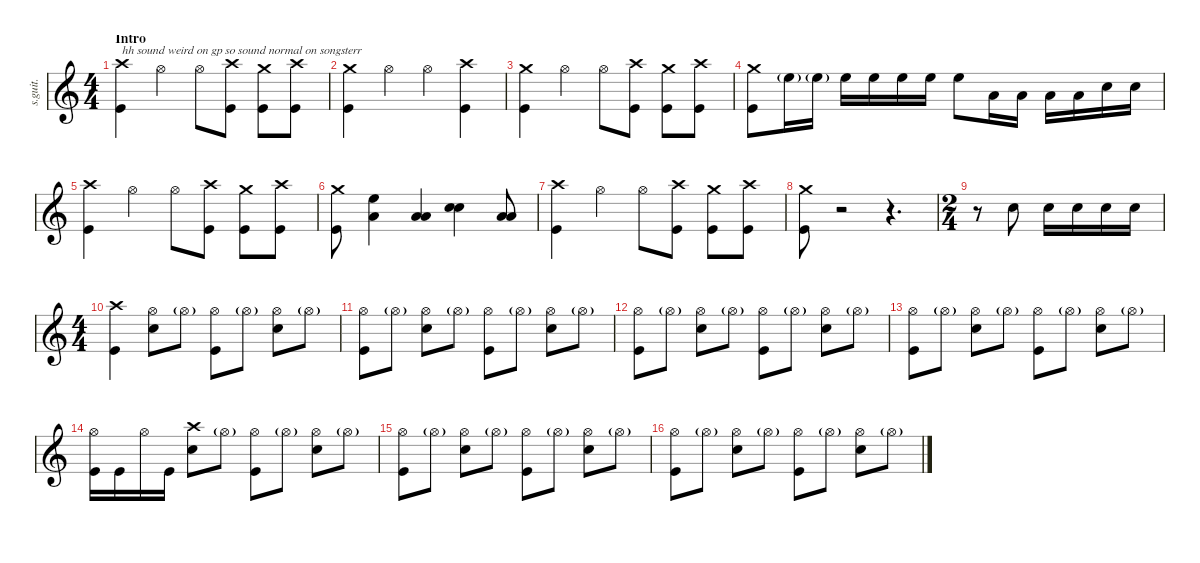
\defaultSystemsLayout 4
\hideDynamics
\bracketExtendMode nobrackets
\track ("Lars Ulrich" "s.guit.") {instrument percussion}
\staff {score}
\articulation defaults
\ts (4 4)
\beaming (8 2 2 2 2)
\section ("" "Intro")
\tempo (94 hide)
\clef g2
\ks c
("Crash high (hit)" "Kick (hit)").4{txt "hh sound weird on gp so sound normal on songsterr" lyrics (0 "") lyrics (1 "") lyrics (2 "") lyrics (3 "") lyrics (4 "") dy f} "Hi-Hat (open)".4{lyrics (0 "") lyrics (1 "") lyrics (2 "") lyrics (3 "") lyrics (4 "")} "Hi-Hat (open)".8{lyrics (0 "") lyrics (1 "") lyrics (2 "") lyrics (3 "") lyrics (4 "")} ("Crash high (hit)" "Kick (hit)").8{lyrics (0 "") lyrics (1 "") lyrics (2 "") lyrics (3 "") lyrics (4 "")} ("Crash medium (hit)" "Kick (hit)").8{lyrics (0 "") lyrics (1 "") lyrics (2 "") lyrics (3 "") lyrics (4 "")} ("Crash high (hit)" "Kick (hit)").8{lyrics (0 "") lyrics (1 "") lyrics (2 "") lyrics (3 "") lyrics (4 "")} |
\tempo (93 hide)
("Crash medium (hit)" "Kick (hit)").4{lyrics (0 "") lyrics (1 "") lyrics (2 "") lyrics (3 "") lyrics (4 "")} "Hi-Hat (open)".4{lyrics (0 "") lyrics (1 "") lyrics (2 "") lyrics (3 "") lyrics (4 "")} "Hi-Hat (open)".4{lyrics (0 "") lyrics (1 "") lyrics (2 "") lyrics (3 "") lyrics (4 "")} ("Crash high (hit)" "Kick (hit)").4{lyrics (0 "") lyrics (1 "") lyrics (2 "") lyrics (3 "") lyrics (4 "")} |
\tempo (92 hide)
("Crash medium (hit)" "Kick (hit)").4{lyrics (0 "") lyrics (1 "") lyrics (2 "") lyrics (3 "") lyrics (4 "")} "Hi-Hat (open)".4{lyrics (0 "") lyrics (1 "") lyrics (2 "") lyrics (3 "") lyrics (4 "")} "Hi-Hat (open)".8{lyrics (0 "") lyrics (1 "") lyrics (2 "") lyrics (3 "") lyrics (4 "")} ("Crash high (hit)" "Kick (hit)").8{lyrics (0 "") lyrics (1 "") lyrics (2 "") lyrics (3 "") lyrics (4 "")} ("Crash medium (hit)" "Kick (hit)").8{lyrics (0 "") lyrics (1 "") lyrics (2 "") lyrics (3 "") lyrics (4 "")} ("Crash high (hit)" "Kick (hit)").8{lyrics (0 "") lyrics (1 "") lyrics (2 "") lyrics (3 "") lyrics (4 "")} |
\tempo (96 hide)
("Crash medium (hit)" "Kick (hit)").8{lyrics (0 "") lyrics (1 "") lyrics (2 "") lyrics (3 "") lyrics (4 "")} "High Floor Tom (hit)"{g}.16{lyrics (0 "") lyrics (1 "") lyrics (2 "") lyrics (3 "") lyrics (4 "") dy ff} "High Floor Tom (hit)"{g}.16{lyrics (0 "") lyrics (1 "") lyrics (2 "") lyrics (3 "") lyrics (4 "")} "High Floor Tom (hit)".16{lyrics (0 "") lyrics (1 "") lyrics (2 "") lyrics (3 "") lyrics (4 "")} "High Floor Tom (hit)".16{lyrics (0 "") lyrics (1 "") lyrics (2 "") lyrics (3 "") lyrics (4 "")} "High Floor Tom (hit)".16{lyrics (0 "") lyrics (1 "") lyrics (2 "") lyrics (3 "") lyrics (4 "")} "High Floor Tom (hit)".16{lyrics (0 "") lyrics (1 "") lyrics (2 "") lyrics (3 "") lyrics (4 "")} "High Floor Tom (hit)".8{lyrics (0 "") lyrics (1 "") lyrics (2 "") lyrics (3 "") lyrics (4 "")} "Low Tom (hit)".16{lyrics (0 "") lyrics (1 "") lyrics (2 "") lyrics (3 "") lyrics (4 "")} "Low Tom (hit)".16{lyrics (0 "") lyrics (1 "") lyrics (2 "") lyrics (3 "") lyrics (4 "")} "Low Tom (hit)".16{lyrics (0 "") lyrics (1 "") lyrics (2 "") lyrics (3 "") lyrics (4 "")} "Low Tom (hit)".16{lyrics (0 "") lyrics (1 "") lyrics (2 "") lyrics (3 "") lyrics (4 "")} "Snare (hit) 2".16{lyrics (0 "") lyrics (1 "") lyrics (2 "") lyrics (3 "") lyrics (4 "") dy f} "Snare (hit) 2".16{lyrics (0 "") lyrics (1 "") lyrics (2 "") lyrics (3 "") lyrics (4 "")} |
\tempo (91 hide)
("Crash high (hit)" "Kick (hit)").4{lyrics (0 "") lyrics (1 "") lyrics (2 "") lyrics (3 "") lyrics (4 "")} "Hi-Hat (open)".4{lyrics (0 "") lyrics (1 "") lyrics (2 "") lyrics (3 "") lyrics (4 "")} "Hi-Hat (open)".8{lyrics (0 "") lyrics (1 "") lyrics (2 "") lyrics (3 "") lyrics (4 "")} ("Crash high (hit)" "Kick (hit)").8{lyrics (0 "") lyrics (1 "") lyrics (2 "") lyrics (3 "") lyrics (4 "")} ("Crash medium (hit)" "Kick (hit)").8{lyrics (0 "") lyrics (1 "") lyrics (2 "") lyrics (3 "") lyrics (4 "")} ("Crash high (hit)" "Kick (hit)").8{lyrics (0 "") lyrics (1 "") lyrics (2 "") lyrics (3 "") lyrics (4 "")} |
\tempo (93 hide)
("Crash medium (hit)" "Kick (hit)").8{lyrics (0 "") lyrics (1 "") lyrics (2 "") lyrics (3 "") lyrics (4 "")} ("High Floor Tom (hit)" "Low Tom (hit)").4{lyrics (0 "") lyrics (1 "") lyrics (2 "") lyrics (3 "") lyrics (4 "") dy ff} ("Low Tom (hit)" "Low Floor Tom (hit)").4{lyrics (0 "") lyrics (1 "") lyrics (2 "") lyrics (3 "") lyrics (4 "")} ("Snare (hit) 2" "Snare (hit) 2").4{lyrics (0 "") lyrics (1 "") lyrics (2 "") lyrics (3 "") lyrics (4 "") dy f} ("Low Tom (hit)" "Low Floor Tom (hit)").8{lyrics (0 "") lyrics (1 "") lyrics (2 "") lyrics (3 "") lyrics (4 "") dy ff} |
\tempo (92 hide)
("Crash high (hit)" "Kick (hit)").4{lyrics (0 "") lyrics (1 "") lyrics (2 "") lyrics (3 "") lyrics (4 "") dy f} "Hi-Hat (open)".4{lyrics (0 "") lyrics (1 "") lyrics (2 "") lyrics (3 "") lyrics (4 "")} "Hi-Hat (open)".8{lyrics (0 "") lyrics (1 "") lyrics (2 "") lyrics (3 "") lyrics (4 "")} ("Crash high (hit)" "Kick (hit)").8{lyrics (0 "") lyrics (1 "") lyrics (2 "") lyrics (3 "") lyrics (4 "")} ("Crash medium (hit)" "Kick (hit)").8{lyrics (0 "") lyrics (1 "") lyrics (2 "") lyrics (3 "") lyrics (4 "")} ("Crash high (hit)" "Kick (hit)").8{lyrics (0 "") lyrics (1 "") lyrics (2 "") lyrics (3 "") lyrics (4 "")} |
\tempo (93 hide)
("Crash medium (hit)" "Kick (hit)").8{lyrics (0 "") lyrics (1 "") lyrics (2 "") lyrics (3 "") lyrics (4 "")} r.2 r.4{d} |
\ts (2 4)
\beaming (8 2 2 2 2)
r.8 "Snare (hit) 2".8{lyrics (0 "") lyrics (1 "") lyrics (2 "") lyrics (3 "") lyrics (4 "")} "Snare (hit) 2".16{lyrics (0 "") lyrics (1 "") lyrics (2 "") lyrics (3 "") lyrics (4 "")} "Snare (hit) 2".16{lyrics (0 "") lyrics (1 "") lyrics (2 "") lyrics (3 "") lyrics (4 "")} "Snare (hit) 2".16{lyrics (0 "") lyrics (1 "") lyrics (2 "") lyrics (3 "") lyrics (4 "")} "Snare (hit) 2".16{lyrics (0 "") lyrics (1 "") lyrics (2 "") lyrics (3 "") lyrics (4 "")} |
\ts (4 4)
\beaming (8 2 2 2 2)
\tempo (88 hide)
("Crash high (hit)" "Kick (hit)").4{lyrics (0 "") lyrics (1 "") lyrics (2 "") lyrics (3 "") lyrics (4 "")} ("Hi-Hat (open)" "Snare (hit) 2").8{lyrics (0 "") lyrics (1 "") lyrics (2 "") lyrics (3 "") lyrics (4 "")} "Hi-Hat (open)"{g}.8{lyrics (0 "") lyrics (1 "") lyrics (2 "") lyrics (3 "") lyrics (4 "") dy p} ("Hi-Hat (open)" "Kick (hit)").8{lyrics (0 "") lyrics (1 "") lyrics (2 "") lyrics (3 "") lyrics (4 "") dy f} "Hi-Hat (open)"{g}.8{lyrics (0 "") lyrics (1 "") lyrics (2 "") lyrics (3 "") lyrics (4 "") dy p} ("Hi-Hat (open)" "Snare (hit) 2").8{lyrics (0 "") lyrics (1 "") lyrics (2 "") lyrics (3 "") lyrics (4 "") dy f} "Hi-Hat (open)"{g}.8{lyrics (0 "") lyrics (1 "") lyrics (2 "") lyrics (3 "") lyrics (4 "") dy p} |
\tempo (89 hide)
("Hi-Hat (open)" "Kick (hit)").8{lyrics (0 "") lyrics (1 "") lyrics (2 "") lyrics (3 "") lyrics (4 "") dy f} "Hi-Hat (open)"{g}.8{lyrics (0 "") lyrics (1 "") lyrics (2 "") lyrics (3 "") lyrics (4 "") dy p} ("Hi-Hat (open)" "Snare (hit) 2").8{lyrics (0 "") lyrics (1 "") lyrics (2 "") lyrics (3 "") lyrics (4 "") dy f} "Hi-Hat (open)"{g}.8{lyrics (0 "") lyrics (1 "") lyrics (2 "") lyrics (3 "") lyrics (4 "") dy p} ("Hi-Hat (open)" "Kick (hit)").8{lyrics (0 "") lyrics (1 "") lyrics (2 "") lyrics (3 "") lyrics (4 "") dy f} "Hi-Hat (open)"{g}.8{lyrics (0 "") lyrics (1 "") lyrics (2 "") lyrics (3 "") lyrics (4 "") dy p} ("Hi-Hat (open)" "Snare (hit) 2").8{lyrics (0 "") lyrics (1 "") lyrics (2 "") lyrics (3 "") lyrics (4 "") dy f} "Hi-Hat (open)"{g}.8{lyrics (0 "") lyrics (1 "") lyrics (2 "") lyrics (3 "") lyrics (4 "") dy p} |
("Hi-Hat (open)" "Kick (hit)").8{lyrics (0 "") lyrics (1 "") lyrics (2 "") lyrics (3 "") lyrics (4 "") dy f} "Hi-Hat (open)"{g}.8{lyrics (0 "") lyrics (1 "") lyrics (2 "") lyrics (3 "") lyrics (4 "") dy p} ("Hi-Hat (open)" "Snare (hit) 2").8{lyrics (0 "") lyrics (1 "") lyrics (2 "") lyrics (3 "") lyrics (4 "") dy f} "Hi-Hat (open)"{g}.8{lyrics (0 "") lyrics (1 "") lyrics (2 "") lyrics (3 "") lyrics (4 "") dy p} ("Hi-Hat (open)" "Kick (hit)").8{lyrics (0 "") lyrics (1 "") lyrics (2 "") lyrics (3 "") lyrics (4 "") dy f} "Hi-Hat (open)"{g}.8{lyrics (0 "") lyrics (1 "") lyrics (2 "") lyrics (3 "") lyrics (4 "") dy p} ("Hi-Hat (open)" "Snare (hit) 2").8{lyrics (0 "") lyrics (1 "") lyrics (2 "") lyrics (3 "") lyrics (4 "") dy f} "Hi-Hat (open)"{g}.8{lyrics (0 "") lyrics (1 "") lyrics (2 "") lyrics (3 "") lyrics (4 "") dy p} |
\tempo (90 hide)
("Hi-Hat (open)" "Kick (hit)").8{lyrics (0 "") lyrics (1 "") lyrics (2 "") lyrics (3 "") lyrics (4 "") dy f} "Hi-Hat (open)"{g}.8{lyrics (0 "") lyrics (1 "") lyrics (2 "") lyrics (3 "") lyrics (4 "") dy p} ("Hi-Hat (open)" "Snare (hit) 2").8{lyrics (0 "") lyrics (1 "") lyrics (2 "") lyrics (3 "") lyrics (4 "") dy f} "Hi-Hat (open)"{g}.8{lyrics (0 "") lyrics (1 "") lyrics (2 "") lyrics (3 "") lyrics (4 "") dy p} ("Hi-Hat (open)" "Kick (hit)").8{lyrics (0 "") lyrics (1 "") lyrics (2 "") lyrics (3 "") lyrics (4 "") dy f} "Hi-Hat (open)"{g}.8{lyrics (0 "") lyrics (1 "") lyrics (2 "") lyrics (3 "") lyrics (4 "") dy p} ("Hi-Hat (open)" "Snare (hit) 2").8{lyrics (0 "") lyrics (1 "") lyrics (2 "") lyrics (3 "") lyrics (4 "") dy f} "Hi-Hat (open)"{g}.8{lyrics (0 "") lyrics (1 "") lyrics (2 "") lyrics (3 "") lyrics (4 "") dy p} |
\tempo (89 hide)
("Hi-Hat (open)" "Kick (hit)").16{lyrics (0 "") lyrics (1 "") lyrics (2 "") lyrics (3 "") lyrics (4 "") dy f} "Kick (hit)".16{lyrics (0 "") lyrics (1 "") lyrics (2 "") lyrics (3 "") lyrics (4 "")} "Hi-Hat (open)".16{lyrics (0 "") lyrics (1 "") lyrics (2 "") lyrics (3 "") lyrics (4 "")} "Kick (hit)".16{lyrics (0 "") lyrics (1 "") lyrics (2 "") lyrics (3 "") lyrics (4 "") dy fff} ("Crash high (hit)" "Snare (hit) 2").8{lyrics (0 "") lyrics (1 "") lyrics (2 "") lyrics (3 "") lyrics (4 "") dy f} "Hi-Hat (open)"{g}.8{lyrics (0 "") lyrics (1 "") lyrics (2 "") lyrics (3 "") lyrics (4 "") dy p} ("Hi-Hat (open)" "Kick (hit)").8{lyrics (0 "") lyrics (1 "") lyrics (2 "") lyrics (3 "") lyrics (4 "") dy f} "Hi-Hat (open)"{g}.8{lyrics (0 "") lyrics (1 "") lyrics (2 "") lyrics (3 "") lyrics (4 "") dy p} ("Hi-Hat (open)" "Snare (hit) 2").8{lyrics (0 "") lyrics (1 "") lyrics (2 "") lyrics (3 "") lyrics (4 "") dy f} "Hi-Hat (open)"{g}.8{lyrics (0 "") lyrics (1 "") lyrics (2 "") lyrics (3 "") lyrics (4 "") dy p} |
("Hi-Hat (open)" "Kick (hit)").8{lyrics (0 "") lyrics (1 "") lyrics (2 "") lyrics (3 "") lyrics (4 "") dy f} "Hi-Hat (open)"{g}.8{lyrics (0 "") lyrics (1 "") lyrics (2 "") lyrics (3 "") lyrics (4 "") dy p} ("Hi-Hat (open)" "Snare (hit) 2").8{lyrics (0 "") lyrics (1 "") lyrics (2 "") lyrics (3 "") lyrics (4 "") dy f} "Hi-Hat (open)"{g}.8{lyrics (0 "") lyrics (1 "") lyrics (2 "") lyrics (3 "") lyrics (4 "") dy p} ("Hi-Hat (open)" "Kick (hit)").8{lyrics (0 "") lyrics (1 "") lyrics (2 "") lyrics (3 "") lyrics (4 "") dy f} "Hi-Hat (open)"{g}.8{lyrics (0 "") lyrics (1 "") lyrics (2 "") lyrics (3 "") lyrics (4 "") dy p} ("Hi-Hat (open)" "Snare (hit) 2").8{lyrics (0 "") lyrics (1 "") lyrics (2 "") lyrics (3 "") lyrics (4 "") dy f} "Hi-Hat (open)"{g}.8{lyrics (0 "") lyrics (1 "") lyrics (2 "") lyrics (3 "") lyrics (4 "") dy p} |
\tempo (90 hide)
("Hi-Hat (open)" "Kick (hit)").8{lyrics (0 "") lyrics (1 "") lyrics (2 "") lyrics (3 "") lyrics (4 "") dy f} "Hi-Hat (open)"{g}.8{lyrics (0 "") lyrics (1 "") lyrics (2 "") lyrics (3 "") lyrics (4 "") dy p} ("Hi-Hat (open)" "Snare (hit) 2").8{lyrics (0 "") lyrics (1 "") lyrics (2 "") lyrics (3 "") lyrics (4 "") dy f} "Hi-Hat (open)"{g}.8{lyrics (0 "") lyrics (1 "") lyrics (2 "") lyrics (3 "") lyrics (4 "") dy p} ("Hi-Hat (open)" "Kick (hit)").8{lyrics (0 "") lyrics (1 "") lyrics (2 "") lyrics (3 "") lyrics (4 "") dy f} "Hi-Hat (open)"{g}.8{lyrics (0 "") lyrics (1 "") lyrics (2 "") lyrics (3 "") lyrics (4 "") dy p} ("Hi-Hat (open)" "Snare (hit) 2").8{lyrics (0 "") lyrics (1 "") lyrics (2 "") lyrics (3 "") lyrics (4 "") dy f} "Hi-Hat (open)"{g}.8{lyrics (0 "") lyrics (1 "") lyrics (2 "") lyrics (3 "") lyrics (4 "") dy p}
